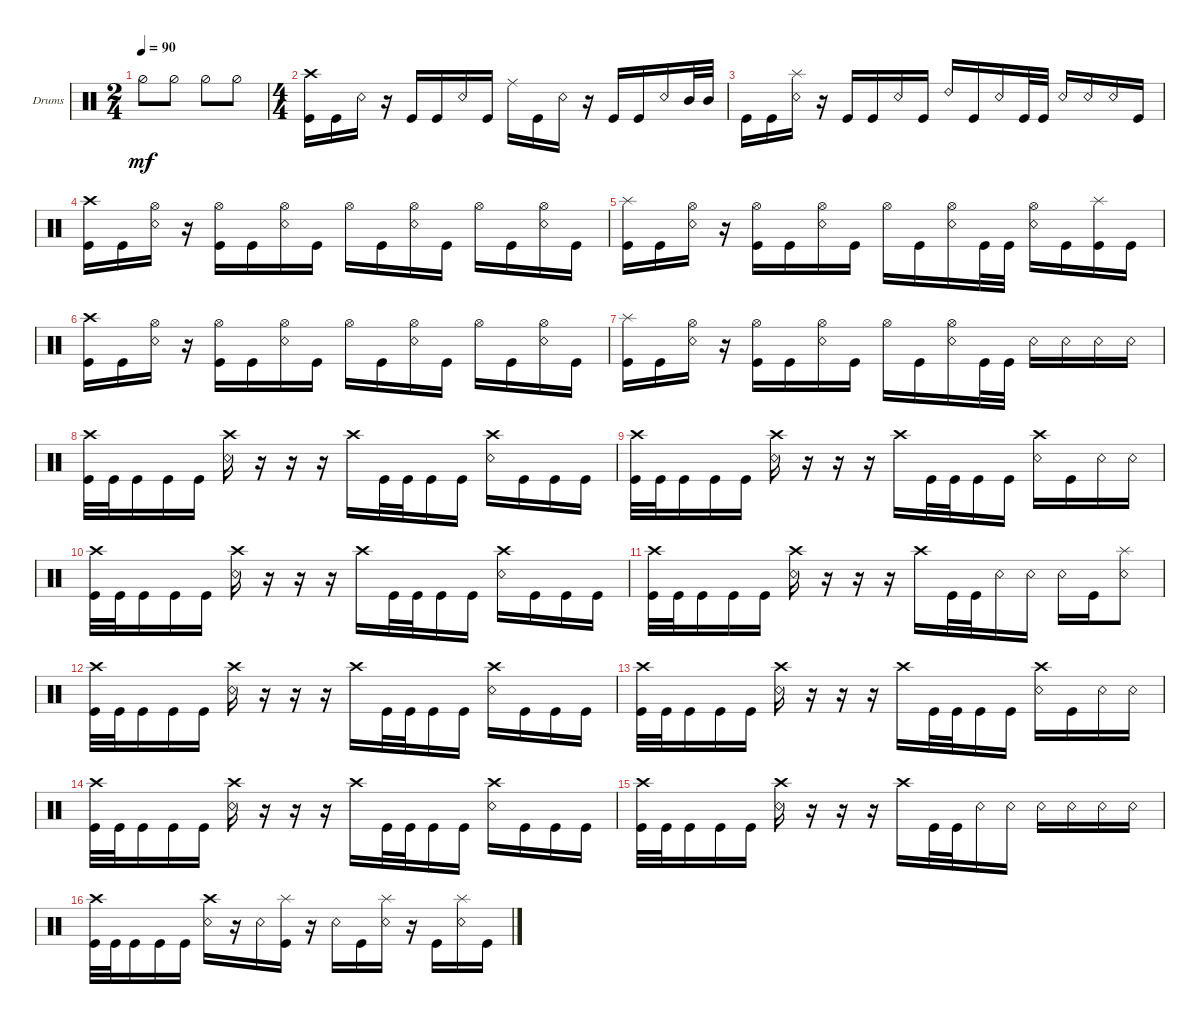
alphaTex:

\defaultSystemsLayout 4
\bracketExtendMode groupsimilarinstruments
\firstSystemTrackNameOrientation horizontal
\otherSystemsTrackNameOrientation horizontal
\track ("Drumkit" "Drums") {instrument percussion}
\staff {score}
\articulation defaults
\ts (2 4)
\tempo 90
\clef neutral
\ks c "Hi-Hat (half)".8{dy mf} "Hi-Hat (half)".8 "Hi-Hat (half)".8 "Hi-Hat (half)".8
|
\ts (4 4)
("Kick (hit)" "Crash high (hit)").16 "Kick (hit)".16 "Snare (rim shot)".16 r.16 "Kick (hit)".16 "Kick (hit)".16 "Snare (rim shot)".16 "Kick (hit)".16 "Ride (middle)".16 "Kick (hit)".16 "Snare (rim shot)".16 r.16 "Kick (hit)".16 "Kick (hit)".16 "Snare (rim shot)".16 "Mid Tom (hit)".32 "Mid Tom (hit)".32 |
"Kick (hit)".16 "Kick (hit)".16 ("Snare (rim shot)" "Splash (hit)").16 r.16 "Kick (hit)".16 "Kick (hit)".16 "Snare (rim shot)".16 "Kick (hit)".16 "Ride (bell) 2".16 "Kick (hit)".16 "Snare (rim shot)".16 "Kick (hit)".32 "Kick (hit)".32 "Snare (rim shot)".16 "Snare (rim shot)".16 "Snare (rim shot)".16 "Kick (hit)".16 |
("Kick (hit)" "Crash high (hit)").16 "Kick (hit)".16 ("Snare (rim shot)" "Hi-Hat (open)").16 r.16 ("Kick (hit)" "Hi-Hat (open)").16 "Kick (hit)".16 ("Snare (rim shot)" "Hi-Hat (open)").16 "Kick (hit)".16 "Hi-Hat (open)".16 "Kick (hit)".16 ("Snare (rim shot)" "Hi-Hat (open)").16 "Kick (hit)".16 "Hi-Hat (open)".16 "Kick (hit)".16 ("Snare (rim shot)" "Hi-Hat (open)").16 "Kick (hit)".16 |
("Kick (hit)" "Splash (hit)").16 "Kick (hit)".16 ("Snare (rim shot)" "Hi-Hat (open)").16 r.16 ("Kick (hit)" "Hi-Hat (open)").16 "Kick (hit)".16 ("Snare (rim shot)" "Hi-Hat (open)").16 "Kick (hit)".16 "Hi-Hat (open)".16 "Kick (hit)".16 ("Snare (rim shot)" "Hi-Hat (open)").16 "Kick (hit)".32 "Kick (hit)".32 ("Snare (rim shot)" "Hi-Hat (open)").16 "Kick (hit)".16 ("Kick (hit)" "Splash (hit)").16 "Kick (hit)".16 |
("Kick (hit)" "Crash high (hit)").16 "Kick (hit)".16 ("Snare (rim shot)" "Hi-Hat (open)").16 r.16 ("Kick (hit)" "Hi-Hat (open)").16 "Kick (hit)".16 ("Snare (rim shot)" "Hi-Hat (open)").16 "Kick (hit)".16 "Hi-Hat (open)".16 "Kick (hit)".16 ("Snare (rim shot)" "Hi-Hat (open)").16 "Kick (hit)".16 "Hi-Hat (open)".16 "Kick (hit)".16 ("Snare (rim shot)" "Hi-Hat (open)").16 "Kick (hit)".16 |
("Kick (hit)" "Splash (hit)").16 "Kick (hit)".16 ("Snare (rim shot)" "Hi-Hat (open)").16 r.16 ("Kick (hit)" "Hi-Hat (open)").16 "Kick (hit)".16 ("Snare (rim shot)" "Hi-Hat (open)").16 "Kick (hit)".16 "Hi-Hat (open)".16 "Kick (hit)".16 ("Snare (rim shot)" "Hi-Hat (open)").16 "Kick (hit)".32 "Kick (hit)".32 "Snare (rim shot)".16 "Snare (rim shot)".16 "Snare (rim shot)".16 "Snare (rim shot)".16 |
("Kick (hit)" "Crash high (hit)").32 "Kick (hit)".32 "Kick (hit)".16 "Kick (hit)".16 "Kick (hit)".16 ("Snare (rim shot)" "Crash high (hit)").16 r.16 r.16 r.16 "Crash high (hit)".16 "Kick (hit)".32 "Kick (hit)".32 "Kick (hit)".16 "Kick (hit)".16 ("Snare (rim shot)" "Crash high (hit)").16 "Kick (hit)".16 "Kick (hit)".16 "Kick (hit)".16 |
("Kick (hit)" "Crash high (hit)").32 "Kick (hit)".32 "Kick (hit)".16 "Kick (hit)".16 "Kick (hit)".16 ("Snare (rim shot)" "Crash high (hit)").16 r.16 r.16 r.16 "Crash high (hit)".16 "Kick (hit)".32 "Kick (hit)".32 "Kick (hit)".16 "Kick (hit)".16 ("Snare (rim shot)" "Crash high (hit)").16 "Kick (hit)".16 "Snare (rim shot)".16 "Snare (rim shot)".16 |
("Kick (hit)" "Crash high (hit)").32 "Kick (hit)".32 "Kick (hit)".16 "Kick (hit)".16 "Kick (hit)".16 ("Snare (rim shot)" "Crash high (hit)").16 r.16 r.16 r.16 "Crash high (hit)".16 "Kick (hit)".32 "Kick (hit)".32 "Kick (hit)".16 "Kick (hit)".16 ("Snare (rim shot)" "Crash high (hit)").16 "Kick (hit)".16 "Kick (hit)".16 "Kick (hit)".16 |
("Kick (hit)" "Crash high (hit)").32 "Kick (hit)".32 "Kick (hit)".16 "Kick (hit)".16 "Kick (hit)".16 ("Snare (rim shot)" "Crash high (hit)").16 r.16 r.16 r.16 "Crash high (hit)".16 "Kick (hit)".32 "Kick (hit)".32 "Snare (rim shot)".16 "Snare (rim shot)".16 "Snare (rim shot)".16 "Kick (hit)".16 ("Snare (rim shot)" "Splash (hit)").8 |
("Kick (hit)" "Crash high (hit)").32 "Kick (hit)".32 "Kick (hit)".16 "Kick (hit)".16 "Kick (hit)".16 ("Snare (rim shot)" "Crash high (hit)").16 r.16 r.16 r.16 "Crash high (hit)".16 "Kick (hit)".32 "Kick (hit)".32 "Kick (hit)".16 "Kick (hit)".16 ("Snare (rim shot)" "Crash high (hit)").16 "Kick (hit)".16 "Kick (hit)".16 "Kick (hit)".16 |
("Kick (hit)" "Crash high (hit)").32 "Kick (hit)".32 "Kick (hit)".16 "Kick (hit)".16 "Kick (hit)".16 ("Snare (rim shot)" "Crash high (hit)").16 r.16 r.16 r.16 "Crash high (hit)".16 "Kick (hit)".32 "Kick (hit)".32 "Kick (hit)".16 "Kick (hit)".16 ("Snare (rim shot)" "Crash high (hit)").16 "Kick (hit)".16 "Snare (rim shot)".16 "Snare (rim shot)".16 |
("Kick (hit)" "Crash high (hit)").32 "Kick (hit)".32 "Kick (hit)".16 "Kick (hit)".16 "Kick (hit)".16 ("Snare (rim shot)" "Crash high (hit)").16 r.16 r.16 r.16 "Crash high (hit)".16 "Kick (hit)".32 "Kick (hit)".32 "Kick (hit)".16 "Kick (hit)".16 ("Snare (rim shot)" "Crash high (hit)").16 "Kick (hit)".16 "Kick (hit)".16 "Kick (hit)".16 |
("Kick (hit)" "Crash high (hit)").32 "Kick (hit)".32 "Kick (hit)".16 "Kick (hit)".16 "Kick (hit)".16 ("Snare (rim shot)" "Crash high (hit)").16 r.16 r.16 r.16 "Crash high (hit)".16 "Kick (hit)".32 "Kick (hit)".32 "Snare (rim shot)".16 "Snare (rim shot)".16 "Snare (rim shot)".16 "Snare (rim shot)".16 "Snare (rim shot)".16 "Snare (rim shot)".16 |
("Kick (hit)" "Crash high (hit)").32 "Kick (hit)".32 "Kick (hit)".16 "Kick (hit)".16 "Kick (hit)".16 ("Snare (rim shot)" "Crash high (hit)").16 r.16 "Snare (rim shot)".16 ("Kick (hit)" "Splash (hit)").16 r.16 "Snare (rim shot)".16 "Kick (hit)".16 ("Snare (rim shot)" "Splash (hit)").16 r.16 "Kick (hit)".16 ("Snare (rim shot)" "Splash (hit)").16 "Kick (hit)".16
